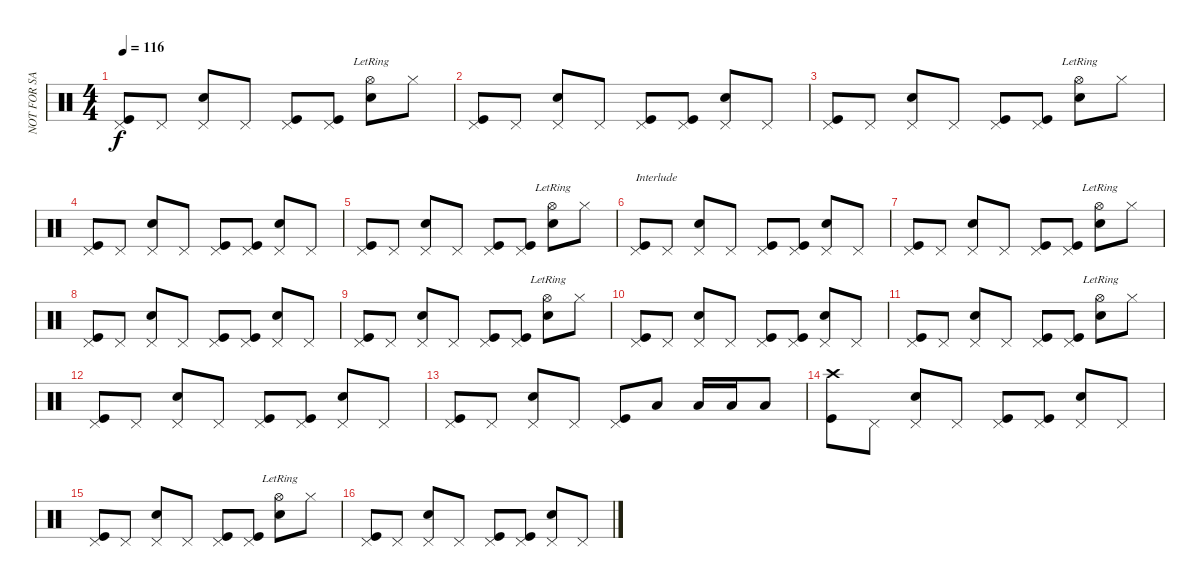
\track ("NOT FOR SALE OR PROFIT" "NOT FOR SA") {instrument percussion}
\staff {score}
\articulation defaults
\ts (4 4)
\tempo 116
\clef neutral
\ks c
("Pedal Hi-Hat (hit)" "Kick (hit)").8{dy f} "Pedal Hi-Hat (hit)".8 ("Pedal Hi-Hat (hit)" "Snare (hit) 2").8 "Pedal Hi-Hat (hit)".8 ("Pedal Hi-Hat (hit)" "Kick (hit)").8 ("Pedal Hi-Hat (hit)" "Kick (hit)").8 ("Hi-Hat (open)"{lr} "Snare (hit) 2").8 "Hi-Hat (closed)".8 |
("Pedal Hi-Hat (hit)" "Kick (hit)").8 "Pedal Hi-Hat (hit)".8 ("Pedal Hi-Hat (hit)" "Snare (hit) 2").8 "Pedal Hi-Hat (hit)".8 ("Pedal Hi-Hat (hit)" "Kick (hit)").8 ("Pedal Hi-Hat (hit)" "Kick (hit)").8 ("Pedal Hi-Hat (hit)" "Snare (hit) 2").8 "Pedal Hi-Hat (hit)".8 |
("Pedal Hi-Hat (hit)" "Kick (hit)").8 "Pedal Hi-Hat (hit)".8 ("Pedal Hi-Hat (hit)" "Snare (hit) 2").8 "Pedal Hi-Hat (hit)".8 ("Pedal Hi-Hat (hit)" "Kick (hit)").8 ("Pedal Hi-Hat (hit)" "Kick (hit)").8 ("Hi-Hat (open)"{lr} "Snare (hit) 2").8 "Hi-Hat (closed)".8 |
("Pedal Hi-Hat (hit)" "Kick (hit)").8 "Pedal Hi-Hat (hit)".8 ("Pedal Hi-Hat (hit)" "Snare (hit) 2").8 "Pedal Hi-Hat (hit)".8 ("Pedal Hi-Hat (hit)" "Kick (hit)").8 ("Pedal Hi-Hat (hit)" "Kick (hit)").8 ("Pedal Hi-Hat (hit)" "Snare (hit) 2").8 "Pedal Hi-Hat (hit)".8 |
("Pedal Hi-Hat (hit)" "Kick (hit)").8 "Pedal Hi-Hat (hit)".8 ("Pedal Hi-Hat (hit)" "Snare (hit) 2").8 "Pedal Hi-Hat (hit)".8 ("Pedal Hi-Hat (hit)" "Kick (hit)").8 ("Pedal Hi-Hat (hit)" "Kick (hit)").8 ("Hi-Hat (open)"{lr} "Snare (hit) 2").8 "Hi-Hat (closed)".8 |
("Pedal Hi-Hat (hit)" "Kick (hit)").8{txt "Interlude"} "Pedal Hi-Hat (hit)".8 ("Pedal Hi-Hat (hit)" "Snare (hit) 2").8 "Pedal Hi-Hat (hit)".8 ("Pedal Hi-Hat (hit)" "Kick (hit)").8 ("Pedal Hi-Hat (hit)" "Kick (hit)").8 ("Pedal Hi-Hat (hit)" "Snare (hit) 2").8 "Pedal Hi-Hat (hit)".8 |
("Pedal Hi-Hat (hit)" "Kick (hit)").8 "Pedal Hi-Hat (hit)".8 ("Pedal Hi-Hat (hit)" "Snare (hit) 2").8 "Pedal Hi-Hat (hit)".8 ("Pedal Hi-Hat (hit)" "Kick (hit)").8 ("Pedal Hi-Hat (hit)" "Kick (hit)").8 ("Hi-Hat (open)"{lr} "Snare (hit) 2").8 "Hi-Hat (closed)".8 |
("Pedal Hi-Hat (hit)" "Kick (hit)").8 "Pedal Hi-Hat (hit)".8 ("Pedal Hi-Hat (hit)" "Snare (hit) 2").8 "Pedal Hi-Hat (hit)".8 ("Pedal Hi-Hat (hit)" "Kick (hit)").8 ("Pedal Hi-Hat (hit)" "Kick (hit)").8 ("Pedal Hi-Hat (hit)" "Snare (hit) 2").8 "Pedal Hi-Hat (hit)".8 |
("Pedal Hi-Hat (hit)" "Kick (hit)").8 "Pedal Hi-Hat (hit)".8 ("Pedal Hi-Hat (hit)" "Snare (hit) 2").8 "Pedal Hi-Hat (hit)".8 ("Pedal Hi-Hat (hit)" "Kick (hit)").8 ("Pedal Hi-Hat (hit)" "Kick (hit)").8 ("Hi-Hat (open)"{lr} "Snare (hit) 2").8 "Hi-Hat (closed)".8 |
("Pedal Hi-Hat (hit)" "Kick (hit)").8 "Pedal Hi-Hat (hit)".8 ("Pedal Hi-Hat (hit)" "Snare (hit) 2").8 "Pedal Hi-Hat (hit)".8 ("Pedal Hi-Hat (hit)" "Kick (hit)").8 ("Pedal Hi-Hat (hit)" "Kick (hit)").8 ("Pedal Hi-Hat (hit)" "Snare (hit) 2").8 "Pedal Hi-Hat (hit)".8 |
("Pedal Hi-Hat (hit)" "Kick (hit)").8 "Pedal Hi-Hat (hit)".8 ("Pedal Hi-Hat (hit)" "Snare (hit) 2").8 "Pedal Hi-Hat (hit)".8 ("Pedal Hi-Hat (hit)" "Kick (hit)").8 ("Pedal Hi-Hat (hit)" "Kick (hit)").8 ("Hi-Hat (open)"{lr} "Snare (hit) 2").8 "Hi-Hat (closed)".8 |
("Pedal Hi-Hat (hit)" "Kick (hit)").8 "Pedal Hi-Hat (hit)".8 ("Pedal Hi-Hat (hit)" "Snare (hit) 2").8 "Pedal Hi-Hat (hit)".8 ("Pedal Hi-Hat (hit)" "Kick (hit)").8 ("Pedal Hi-Hat (hit)" "Kick (hit)").8 ("Pedal Hi-Hat (hit)" "Snare (hit) 2").8 "Pedal Hi-Hat (hit)".8 |
("Pedal Hi-Hat (hit)" "Kick (hit)").8 "Pedal Hi-Hat (hit)".8 ("Pedal Hi-Hat (hit)" "Snare (hit) 2").8 "Pedal Hi-Hat (hit)".8 ("Pedal Hi-Hat (hit)" "Kick (hit)").8 "Low Tom (hit)".8 "Low Tom (hit)".16 "Low Tom (hit)".16 "Low Tom (hit)".8 |
("Crash high (hit)" "Kick (hit)").8 "Pedal Hi-Hat (hit)".8 ("Pedal Hi-Hat (hit)" "Snare (hit) 2").8 "Pedal Hi-Hat (hit)".8 ("Pedal Hi-Hat (hit)" "Kick (hit)").8 ("Pedal Hi-Hat (hit)" "Kick (hit)").8 ("Pedal Hi-Hat (hit)" "Snare (hit) 2").8 "Pedal Hi-Hat (hit)".8 |
("Pedal Hi-Hat (hit)" "Kick (hit)").8 "Pedal Hi-Hat (hit)".8 ("Pedal Hi-Hat (hit)" "Snare (hit) 2").8 "Pedal Hi-Hat (hit)".8 ("Pedal Hi-Hat (hit)" "Kick (hit)").8 ("Pedal Hi-Hat (hit)" "Kick (hit)").8 ("Hi-Hat (open)"{lr} "Snare (hit) 2").8 "Hi-Hat (closed)".8 |
("Pedal Hi-Hat (hit)" "Kick (hit)").8 "Pedal Hi-Hat (hit)".8 ("Pedal Hi-Hat (hit)" "Snare (hit) 2").8 "Pedal Hi-Hat (hit)".8 ("Pedal Hi-Hat (hit)" "Kick (hit)").8 ("Pedal Hi-Hat (hit)" "Kick (hit)").8 ("Pedal Hi-Hat (hit)" "Snare (hit) 2").8 "Pedal Hi-Hat (hit)".8
